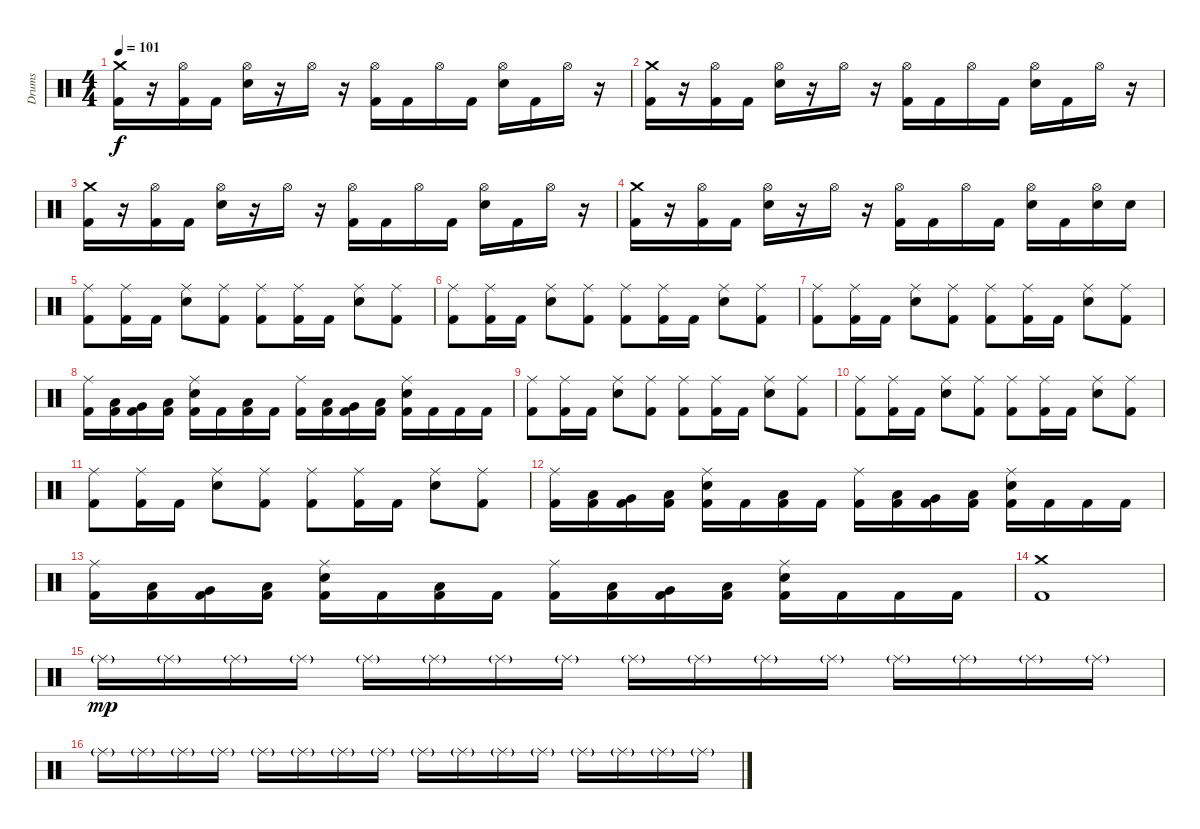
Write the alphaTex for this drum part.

\track ("Drums" "Drums") {instrument percussion}
\staff {score}
\articulation defaults
\ts (4 4)
\tempo 101
\clef neutral
\ks c
("Crash medium (hit)" "Kick (hit) 2").16{dy f} r.16 ("Hi-Hat (open)" "Kick (hit) 2").16 "Kick (hit) 2".16 ("Hi-Hat (open)" "Electric Snare (hit)").16 r.16 "Hi-Hat (open)".16 r.16 ("Hi-Hat (open)" "Kick (hit) 2").16 "Kick (hit) 2".16 "Hi-Hat (open)".16 "Kick (hit) 2".16 ("Hi-Hat (open)" "Electric Snare (hit)").16 "Kick (hit) 2".16 "Hi-Hat (open)".16 r.16 |
("Crash medium (hit)" "Kick (hit) 2").16 r.16 ("Hi-Hat (open)" "Kick (hit) 2").16 "Kick (hit) 2".16 ("Hi-Hat (open)" "Electric Snare (hit)").16 r.16 "Hi-Hat (open)".16 r.16 ("Hi-Hat (open)" "Kick (hit) 2").16 "Kick (hit) 2".16 "Hi-Hat (open)".16 "Kick (hit) 2".16 ("Hi-Hat (open)" "Electric Snare (hit)").16 "Kick (hit) 2".16 "Hi-Hat (open)".16 r.16 |
("Crash medium (hit)" "Kick (hit) 2").16 r.16 ("Hi-Hat (open)" "Kick (hit) 2").16 "Kick (hit) 2".16 ("Hi-Hat (open)" "Electric Snare (hit)").16 r.16 "Hi-Hat (open)".16 r.16 ("Hi-Hat (open)" "Kick (hit) 2").16 "Kick (hit) 2".16 "Hi-Hat (open)".16 "Kick (hit) 2".16 ("Hi-Hat (open)" "Electric Snare (hit)").16 "Kick (hit) 2".16 "Hi-Hat (open)".16 r.16 |
("Crash medium (hit)" "Kick (hit) 2").16 r.16 ("Hi-Hat (open)" "Kick (hit) 2").16 "Kick (hit) 2".16 ("Hi-Hat (open)" "Electric Snare (hit)").16 r.16 "Hi-Hat (open)".16 r.16 ("Hi-Hat (open)" "Kick (hit) 2").16 "Kick (hit) 2".16 "Hi-Hat (open)".16 "Kick (hit) 2".16 ("Hi-Hat (open)" "Electric Snare (hit)").16 "Kick (hit) 2".16 ("Hi-Hat (open)" "Electric Snare (hit)").16 "Electric Snare (hit)".16 |
("Ride (middle)" "Kick (hit) 2").8 ("Ride (middle)" "Kick (hit) 2").16 "Kick (hit) 2".16 ("Ride (middle)" "Electric Snare (hit)").8 ("Ride (middle)" "Kick (hit) 2").8 ("Ride (middle)" "Kick (hit) 2").8 ("Ride (middle)" "Kick (hit) 2").16 "Kick (hit) 2".16 ("Ride (middle)" "Electric Snare (hit)").8 ("Ride (middle)" "Kick (hit) 2").8 |
("Ride (middle)" "Kick (hit) 2").8 ("Ride (middle)" "Kick (hit) 2").16 "Kick (hit) 2".16 ("Ride (middle)" "Electric Snare (hit)").8 ("Ride (middle)" "Kick (hit) 2").8 ("Ride (middle)" "Kick (hit) 2").8 ("Ride (middle)" "Kick (hit) 2").16 "Kick (hit) 2".16 ("Ride (middle)" "Electric Snare (hit)").8 ("Ride (middle)" "Kick (hit) 2").8 |
("Ride (middle)" "Kick (hit) 2").8 ("Ride (middle)" "Kick (hit) 2").16 "Kick (hit) 2".16 ("Ride (middle)" "Electric Snare (hit)").8 ("Ride (middle)" "Kick (hit) 2").8 ("Ride (middle)" "Kick (hit) 2").8 ("Ride (middle)" "Kick (hit) 2").16 "Kick (hit) 2".16 ("Ride (middle)" "Electric Snare (hit)").8 ("Ride (middle)" "Kick (hit) 2").8 |
("Ride (middle)" "Kick (hit) 2").16 ("Low Tom (hit)" "Kick (hit) 2").16 ("Very Low Tom (hit)" "Kick (hit) 2").16 ("Low Floor Tom (hit)" "Kick (hit) 2").16 ("Ride (middle)" "Electric Snare (hit)" "Kick (hit) 2").16 "Kick (hit) 2".16 ("Low Tom (hit)" "Kick (hit) 2").16 "Kick (hit) 2".16 ("Ride (middle)" "Kick (hit) 2").16 ("Low Tom (hit)" "Kick (hit) 2").16 ("Very Low Tom (hit)" "Kick (hit) 2").16 ("Low Floor Tom (hit)" "Kick (hit) 2").16 ("Ride (middle)" "Electric Snare (hit)" "Kick (hit) 2").16 "Kick (hit) 2".16 "Kick (hit) 2".16 "Kick (hit) 2".16 |
("Ride (middle)" "Kick (hit) 2").8 ("Ride (middle)" "Kick (hit) 2").16 "Kick (hit) 2".16 ("Ride (middle)" "Electric Snare (hit)").8 ("Ride (middle)" "Kick (hit) 2").8 ("Ride (middle)" "Kick (hit) 2").8 ("Ride (middle)" "Kick (hit) 2").16 "Kick (hit) 2".16 ("Ride (middle)" "Electric Snare (hit)").8 ("Ride (middle)" "Kick (hit) 2").8 |
("Ride (middle)" "Kick (hit) 2").8 ("Ride (middle)" "Kick (hit) 2").16 "Kick (hit) 2".16 ("Ride (middle)" "Electric Snare (hit)").8 ("Ride (middle)" "Kick (hit) 2").8 ("Ride (middle)" "Kick (hit) 2").8 ("Ride (middle)" "Kick (hit) 2").16 "Kick (hit) 2".16 ("Ride (middle)" "Electric Snare (hit)").8 ("Ride (middle)" "Kick (hit) 2").8 |
("Ride (middle)" "Kick (hit) 2").8 ("Ride (middle)" "Kick (hit) 2").16 "Kick (hit) 2".16 ("Ride (middle)" "Electric Snare (hit)").8 ("Ride (middle)" "Kick (hit) 2").8 ("Ride (middle)" "Kick (hit) 2").8 ("Ride (middle)" "Kick (hit) 2").16 "Kick (hit) 2".16 ("Ride (middle)" "Electric Snare (hit)").8 ("Ride (middle)" "Kick (hit) 2").8 |
("Ride (middle)" "Kick (hit) 2").16 ("Low Tom (hit)" "Kick (hit) 2").16 ("Very Low Tom (hit)" "Kick (hit) 2").16 ("Low Floor Tom (hit)" "Kick (hit) 2").16 ("Ride (middle)" "Electric Snare (hit)" "Kick (hit) 2").16 "Kick (hit) 2".16 ("Low Tom (hit)" "Kick (hit) 2").16 "Kick (hit) 2".16 ("Ride (middle)" "Kick (hit) 2").16 ("Low Tom (hit)" "Kick (hit) 2").16 ("Very Low Tom (hit)" "Kick (hit) 2").16 ("Low Floor Tom (hit)" "Kick (hit) 2").16 ("Ride (middle)" "Electric Snare (hit)" "Kick (hit) 2").16 "Kick (hit) 2".16 "Kick (hit) 2".16 "Kick (hit) 2".16 |
("Ride (middle)" "Kick (hit) 2").16 ("Low Tom (hit)" "Kick (hit) 2").16 ("Very Low Tom (hit)" "Kick (hit) 2").16 ("Low Floor Tom (hit)" "Kick (hit) 2").16 ("Ride (middle)" "Electric Snare (hit)" "Kick (hit) 2").16 "Kick (hit) 2".16 ("Low Tom (hit)" "Kick (hit) 2").16 "Kick (hit) 2".16 ("Ride (middle)" "Kick (hit) 2").16 ("Low Tom (hit)" "Kick (hit) 2").16 ("Very Low Tom (hit)" "Kick (hit) 2").16 ("Low Floor Tom (hit)" "Kick (hit) 2").16 ("Ride (middle)" "Electric Snare (hit)" "Kick (hit) 2").16 "Kick (hit) 2".16 "Kick (hit) 2".16 "Kick (hit) 2".16 |
("Crash medium (hit)" "Kick (hit) 2").1 |
"Ride (middle)"{g}.16{dy mp} "Ride (middle)"{g}.16 "Ride (middle)"{g}.16 "Ride (middle)"{g}.16 "Ride (middle)"{g}.16 "Ride (middle)"{g}.16 "Ride (middle)"{g}.16 "Ride (middle)"{g}.16 "Ride (middle)"{g}.16 "Ride (middle)"{g}.16 "Ride (middle)"{g}.16 "Ride (middle)"{g}.16 "Ride (middle)"{g}.16 "Ride (middle)"{g}.16 "Ride (middle)"{g}.16 "Ride (middle)"{g}.16 |
"Ride (middle)"{g}.16 "Ride (middle)"{g}.16 "Ride (middle)"{g}.16 "Ride (middle)"{g}.16 "Ride (middle)"{g}.16 "Ride (middle)"{g}.16 "Ride (middle)"{g}.16 "Ride (middle)"{g}.16 "Ride (middle)"{g}.16 "Ride (middle)"{g}.16 "Ride (middle)"{g}.16 "Ride (middle)"{g}.16 "Ride (middle)"{g}.16 "Ride (middle)"{g}.16 "Ride (middle)"{g}.16 "Ride (middle)"{g}.16
